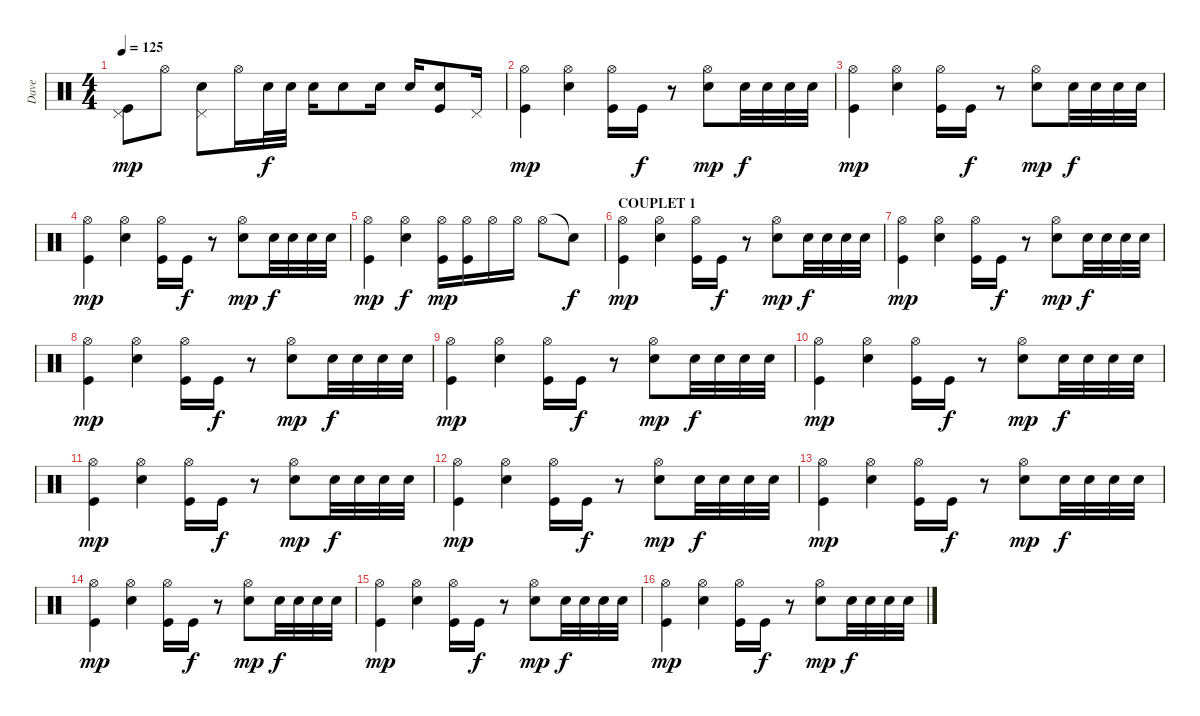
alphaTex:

\track ("Dave" "Dave") {instrument percussion}
\staff {score}
\articulation defaults
\ts (4 4)
\tempo 125
\clef neutral
\ks c
("Pedal Hi-Hat (hit)" "Kick (hit)").8{dy mp} "Hi-Hat (open)".8 ("Pedal Hi-Hat (hit)" "Snare (hit) 2").8 "Hi-Hat (open)".16 "Snare (hit) 2".32{dy f} "Snare (hit) 2".32 "Snare (hit) 2".16 "Snare (hit) 2".8 "Snare (hit) 2".16 "Snare (hit) 2".16 ("Snare (hit) 2" "Kick (hit)").8 "Pedal Hi-Hat (hit)".16 |
("Hi-Hat (open)" "Kick (hit)").4{dy mp} ("Hi-Hat (open)" "Snare (hit) 2").4 ("Hi-Hat (open)" "Kick (hit)").16 "Kick (hit)".16{dy f} r.8 ("Hi-Hat (open)" "Snare (hit) 2").8{dy mp} "Snare (hit) 2".32{dy f} "Snare (hit) 2".32 "Snare (hit) 2".32 "Snare (hit) 2".32 |
("Hi-Hat (open)" "Kick (hit)").4{dy mp} ("Hi-Hat (open)" "Snare (hit) 2").4 ("Hi-Hat (open)" "Kick (hit)").16 "Kick (hit)".16{dy f} r.8 ("Hi-Hat (open)" "Snare (hit) 2").8{dy mp} "Snare (hit) 2".32{dy f} "Snare (hit) 2".32 "Snare (hit) 2".32 "Snare (hit) 2".32 |
("Hi-Hat (open)" "Kick (hit)").4{dy mp} ("Hi-Hat (open)" "Snare (hit) 2").4 ("Hi-Hat (open)" "Kick (hit)").16 "Kick (hit)".16{dy f} r.8 ("Hi-Hat (open)" "Snare (hit) 2").8{dy mp} "Snare (hit) 2".32{dy f} "Snare (hit) 2".32 "Snare (hit) 2".32 "Snare (hit) 2".32 |
("Hi-Hat (open)" "Kick (hit)").4{dy mp} ("Hi-Hat (open)" "Snare (hit) 2").4{dy f} ("Hi-Hat (open)" "Kick (hit)").16{dy mp} ("Hi-Hat (open)" "Kick (hit)").16 "Hi-Hat (open)".16 "Hi-Hat (open)".16 "Hi-Hat (open)".8 "Snare (hit)"{t}.8{dy f} |
\section ("" "COUPLET 1")
("Hi-Hat (open)" "Kick (hit)").4{dy mp} ("Hi-Hat (open)" "Snare (hit) 2").4 ("Hi-Hat (open)" "Kick (hit)").16 "Kick (hit)".16{dy f} r.8 ("Hi-Hat (open)" "Snare (hit) 2").8{dy mp} "Snare (hit) 2".32{dy f} "Snare (hit) 2".32 "Snare (hit) 2".32 "Snare (hit) 2".32 |
("Hi-Hat (open)" "Kick (hit)").4{dy mp} ("Hi-Hat (open)" "Snare (hit) 2").4 ("Hi-Hat (open)" "Kick (hit)").16 "Kick (hit)".16{dy f} r.8 ("Hi-Hat (open)" "Snare (hit) 2").8{dy mp} "Snare (hit) 2".32{dy f} "Snare (hit) 2".32 "Snare (hit) 2".32 "Snare (hit) 2".32 |
("Hi-Hat (open)" "Kick (hit)").4{dy mp} ("Hi-Hat (open)" "Snare (hit) 2").4 ("Hi-Hat (open)" "Kick (hit)").16 "Kick (hit)".16{dy f} r.8 ("Hi-Hat (open)" "Snare (hit) 2").8{dy mp} "Snare (hit) 2".32{dy f} "Snare (hit) 2".32 "Snare (hit) 2".32 "Snare (hit) 2".32 |
("Hi-Hat (open)" "Kick (hit)").4{dy mp} ("Hi-Hat (open)" "Snare (hit) 2").4 ("Hi-Hat (open)" "Kick (hit)").16 "Kick (hit)".16{dy f} r.8 ("Hi-Hat (open)" "Snare (hit) 2").8{dy mp} "Snare (hit) 2".32{dy f} "Snare (hit) 2".32 "Snare (hit) 2".32 "Snare (hit) 2".32 |
("Hi-Hat (open)" "Kick (hit)").4{dy mp} ("Hi-Hat (open)" "Snare (hit) 2").4 ("Hi-Hat (open)" "Kick (hit)").16 "Kick (hit)".16{dy f} r.8 ("Hi-Hat (open)" "Snare (hit) 2").8{dy mp} "Snare (hit) 2".32{dy f} "Snare (hit) 2".32 "Snare (hit) 2".32 "Snare (hit) 2".32 |
("Hi-Hat (open)" "Kick (hit)").4{dy mp} ("Hi-Hat (open)" "Snare (hit) 2").4 ("Hi-Hat (open)" "Kick (hit)").16 "Kick (hit)".16{dy f} r.8 ("Hi-Hat (open)" "Snare (hit) 2").8{dy mp} "Snare (hit) 2".32{dy f} "Snare (hit) 2".32 "Snare (hit) 2".32 "Snare (hit) 2".32 |
("Hi-Hat (open)" "Kick (hit)").4{dy mp} ("Hi-Hat (open)" "Snare (hit) 2").4 ("Hi-Hat (open)" "Kick (hit)").16 "Kick (hit)".16{dy f} r.8 ("Hi-Hat (open)" "Snare (hit) 2").8{dy mp} "Snare (hit) 2".32{dy f} "Snare (hit) 2".32 "Snare (hit) 2".32 "Snare (hit) 2".32 |
("Hi-Hat (open)" "Kick (hit)").4{dy mp} ("Hi-Hat (open)" "Snare (hit) 2").4 ("Hi-Hat (open)" "Kick (hit)").16 "Kick (hit)".16{dy f} r.8 ("Hi-Hat (open)" "Snare (hit) 2").8{dy mp} "Snare (hit) 2".32{dy f} "Snare (hit) 2".32 "Snare (hit) 2".32 "Snare (hit) 2".32 |
("Hi-Hat (open)" "Kick (hit)").4{dy mp} ("Hi-Hat (open)" "Snare (hit) 2").4 ("Hi-Hat (open)" "Kick (hit)").16 "Kick (hit)".16{dy f} r.8 ("Hi-Hat (open)" "Snare (hit) 2").8{dy mp} "Snare (hit) 2".32{dy f} "Snare (hit) 2".32 "Snare (hit) 2".32 "Snare (hit) 2".32 |
("Hi-Hat (open)" "Kick (hit)").4{dy mp} ("Hi-Hat (open)" "Snare (hit) 2").4 ("Hi-Hat (open)" "Kick (hit)").16 "Kick (hit)".16{dy f} r.8 ("Hi-Hat (open)" "Snare (hit) 2").8{dy mp} "Snare (hit) 2".32{dy f} "Snare (hit) 2".32 "Snare (hit) 2".32 "Snare (hit) 2".32 |
("Hi-Hat (open)" "Kick (hit)").4{dy mp} ("Hi-Hat (open)" "Snare (hit) 2").4 ("Hi-Hat (open)" "Kick (hit)").16 "Kick (hit)".16{dy f} r.8 ("Hi-Hat (open)" "Snare (hit) 2").8{dy mp} "Snare (hit) 2".32{dy f} "Snare (hit) 2".32 "Snare (hit) 2".32 "Snare (hit) 2".32
